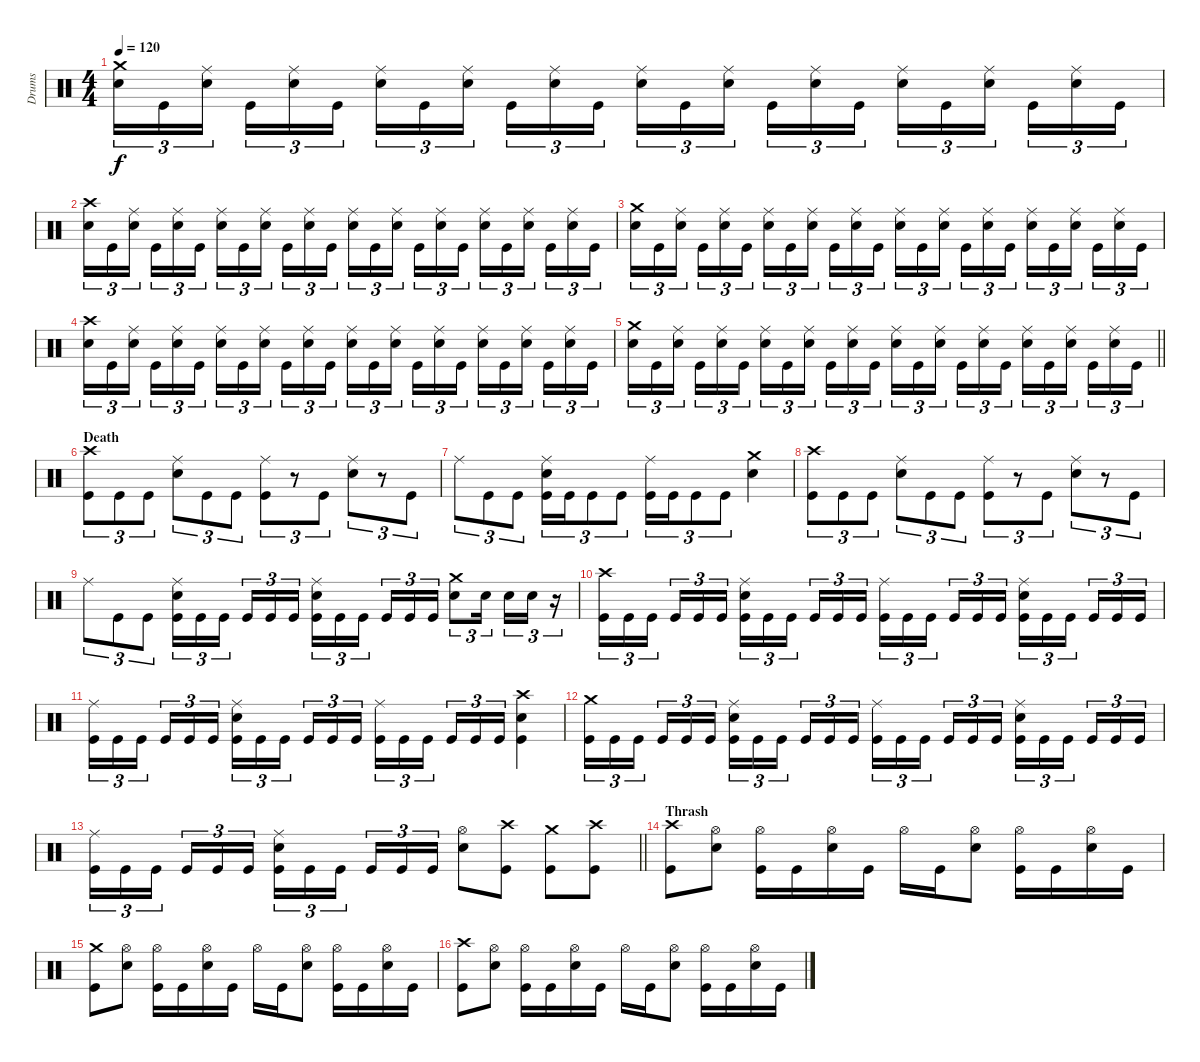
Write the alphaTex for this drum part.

\track ("Drums" "Drums") {instrument percussion}
\staff {score}
\articulation defaults
\ts (4 4)
\tempo 120
\clef neutral
\ks c
("Crash medium (hit)" "Electric Snare (hit)").16{tu (3 2) dy f} "Kick (hit)".16{tu (3 2)} ("Ride (middle)" "Electric Snare (hit)").16{tu (3 2)} "Kick (hit)".16{tu (3 2)} ("Ride (middle)" "Electric Snare (hit)").16{tu (3 2)} "Kick (hit)".16{tu (3 2)} ("Ride (middle)" "Electric Snare (hit)").16{tu (3 2)} "Kick (hit)".16{tu (3 2)} ("Ride (middle)" "Electric Snare (hit)").16{tu (3 2)} "Kick (hit)".16{tu (3 2)} ("Ride (middle)" "Electric Snare (hit)").16{tu (3 2)} "Kick (hit)".16{tu (3 2)} ("Ride (middle)" "Electric Snare (hit)").16{tu (3 2)} "Kick (hit)".16{tu (3 2)} ("Ride (middle)" "Electric Snare (hit)").16{tu (3 2)} "Kick (hit)".16{tu (3 2)} ("Ride (middle)" "Electric Snare (hit)").16{tu (3 2)} "Kick (hit)".16{tu (3 2)} ("Ride (middle)" "Electric Snare (hit)").16{tu (3 2)} "Kick (hit)".16{tu (3 2)} ("Ride (middle)" "Electric Snare (hit)").16{tu (3 2)} "Kick (hit)".16{tu (3 2)} ("Ride (middle)" "Electric Snare (hit)").16{tu (3 2)} "Kick (hit)".16{tu (3 2)} |
("Crash high (hit)" "Electric Snare (hit)").16{tu (3 2)} "Kick (hit)".16{tu (3 2)} ("Ride (middle)" "Electric Snare (hit)").16{tu (3 2)} "Kick (hit)".16{tu (3 2)} ("Ride (middle)" "Electric Snare (hit)").16{tu (3 2)} "Kick (hit)".16{tu (3 2)} ("Ride (middle)" "Electric Snare (hit)").16{tu (3 2)} "Kick (hit)".16{tu (3 2)} ("Ride (middle)" "Electric Snare (hit)").16{tu (3 2)} "Kick (hit)".16{tu (3 2)} ("Ride (middle)" "Electric Snare (hit)").16{tu (3 2)} "Kick (hit)".16{tu (3 2)} ("Ride (middle)" "Electric Snare (hit)").16{tu (3 2)} "Kick (hit)".16{tu (3 2)} ("Ride (middle)" "Electric Snare (hit)").16{tu (3 2)} "Kick (hit)".16{tu (3 2)} ("Ride (middle)" "Electric Snare (hit)").16{tu (3 2)} "Kick (hit)".16{tu (3 2)} ("Ride (middle)" "Electric Snare (hit)").16{tu (3 2)} "Kick (hit)".16{tu (3 2)} ("Ride (middle)" "Electric Snare (hit)").16{tu (3 2)} "Kick (hit)".16{tu (3 2)} ("Ride (middle)" "Electric Snare (hit)").16{tu (3 2)} "Kick (hit)".16{tu (3 2)} |
("Crash medium (hit)" "Electric Snare (hit)").16{tu (3 2)} "Kick (hit)".16{tu (3 2)} ("Ride (middle)" "Electric Snare (hit)").16{tu (3 2)} "Kick (hit)".16{tu (3 2)} ("Ride (middle)" "Electric Snare (hit)").16{tu (3 2)} "Kick (hit)".16{tu (3 2)} ("Ride (middle)" "Electric Snare (hit)").16{tu (3 2)} "Kick (hit)".16{tu (3 2)} ("Ride (middle)" "Electric Snare (hit)").16{tu (3 2)} "Kick (hit)".16{tu (3 2)} ("Ride (middle)" "Electric Snare (hit)").16{tu (3 2)} "Kick (hit)".16{tu (3 2)} ("Ride (middle)" "Electric Snare (hit)").16{tu (3 2)} "Kick (hit)".16{tu (3 2)} ("Ride (middle)" "Electric Snare (hit)").16{tu (3 2)} "Kick (hit)".16{tu (3 2)} ("Ride (middle)" "Electric Snare (hit)").16{tu (3 2)} "Kick (hit)".16{tu (3 2)} ("Ride (middle)" "Electric Snare (hit)").16{tu (3 2)} "Kick (hit)".16{tu (3 2)} ("Ride (middle)" "Electric Snare (hit)").16{tu (3 2)} "Kick (hit)".16{tu (3 2)} ("Ride (middle)" "Electric Snare (hit)").16{tu (3 2)} "Kick (hit)".16{tu (3 2)} |
("Crash high (hit)" "Electric Snare (hit)").16{tu (3 2)} "Kick (hit)".16{tu (3 2)} ("Ride (middle)" "Electric Snare (hit)").16{tu (3 2)} "Kick (hit)".16{tu (3 2)} ("Ride (middle)" "Electric Snare (hit)").16{tu (3 2)} "Kick (hit)".16{tu (3 2)} ("Ride (middle)" "Electric Snare (hit)").16{tu (3 2)} "Kick (hit)".16{tu (3 2)} ("Ride (middle)" "Electric Snare (hit)").16{tu (3 2)} "Kick (hit)".16{tu (3 2)} ("Ride (middle)" "Electric Snare (hit)").16{tu (3 2)} "Kick (hit)".16{tu (3 2)} ("Ride (middle)" "Electric Snare (hit)").16{tu (3 2)} "Kick (hit)".16{tu (3 2)} ("Ride (middle)" "Electric Snare (hit)").16{tu (3 2)} "Kick (hit)".16{tu (3 2)} ("Ride (middle)" "Electric Snare (hit)").16{tu (3 2)} "Kick (hit)".16{tu (3 2)} ("Ride (middle)" "Electric Snare (hit)").16{tu (3 2)} "Kick (hit)".16{tu (3 2)} ("Ride (middle)" "Electric Snare (hit)").16{tu (3 2)} "Kick (hit)".16{tu (3 2)} ("Ride (middle)" "Electric Snare (hit)").16{tu (3 2)} "Kick (hit)".16{tu (3 2)} |
\barLineRight lightlight
("Crash medium (hit)" "Electric Snare (hit)").16{tu (3 2)} "Kick (hit)".16{tu (3 2)} ("Ride (middle)" "Electric Snare (hit)").16{tu (3 2)} "Kick (hit)".16{tu (3 2)} ("Ride (middle)" "Electric Snare (hit)").16{tu (3 2)} "Kick (hit)".16{tu (3 2)} ("Ride (middle)" "Electric Snare (hit)").16{tu (3 2)} "Kick (hit)".16{tu (3 2)} ("Ride (middle)" "Electric Snare (hit)").16{tu (3 2)} "Kick (hit)".16{tu (3 2)} ("Ride (middle)" "Electric Snare (hit)").16{tu (3 2)} "Kick (hit)".16{tu (3 2)} ("Ride (middle)" "Electric Snare (hit)").16{tu (3 2)} "Kick (hit)".16{tu (3 2)} ("Ride (middle)" "Electric Snare (hit)").16{tu (3 2)} "Kick (hit)".16{tu (3 2)} ("Ride (middle)" "Electric Snare (hit)").16{tu (3 2)} "Kick (hit)".16{tu (3 2)} ("Ride (middle)" "Electric Snare (hit)").16{tu (3 2)} "Kick (hit)".16{tu (3 2)} ("Ride (middle)" "Electric Snare (hit)").16{tu (3 2)} "Kick (hit)".16{tu (3 2)} ("Ride (middle)" "Electric Snare (hit)").16{tu (3 2)} "Kick (hit)".16{tu (3 2)} |
\section ("" "Death")
("Crash high (hit)" "Kick (hit)").8{tu (3 2)} "Kick (hit)".8{tu (3 2)} "Kick (hit)".8{tu (3 2)} ("Ride (middle)" "Electric Snare (hit)").8{tu (3 2)} "Kick (hit)".8{tu (3 2)} "Kick (hit)".8{tu (3 2)} ("Ride (middle)" "Kick (hit)").8{tu (3 2)} r.8{tu (3 2)} "Kick (hit)".8{tu (3 2)} ("Ride (middle)" "Electric Snare (hit)").8{tu (3 2)} r.8{tu (3 2)} "Kick (hit)".8{tu (3 2)} |
"Ride (middle)".8{tu (3 2)} "Kick (hit)".8{tu (3 2)} "Kick (hit)".8{tu (3 2)} ("Ride (middle)" "Electric Snare (hit)" "Kick (hit)").16{tu (3 2)} "Kick (hit)".16{tu (3 2)} "Kick (hit)".8{tu (3 2)} "Kick (hit)".8{tu (3 2)} ("Ride (middle)" "Kick (hit)").16{tu (3 2)} "Kick (hit)".16{tu (3 2)} "Kick (hit)".8{tu (3 2)} "Kick (hit)".8{tu (3 2)} ("Crash medium (hit)" "Electric Snare (hit)").4 |
("Crash high (hit)" "Kick (hit)").8{tu (3 2)} "Kick (hit)".8{tu (3 2)} "Kick (hit)".8{tu (3 2)} ("Ride (middle)" "Electric Snare (hit)").8{tu (3 2)} "Kick (hit)".8{tu (3 2)} "Kick (hit)".8{tu (3 2)} ("Ride (middle)" "Kick (hit)").8{tu (3 2)} r.8{tu (3 2)} "Kick (hit)".8{tu (3 2)} ("Ride (middle)" "Electric Snare (hit)").8{tu (3 2)} r.8{tu (3 2)} "Kick (hit)".8{tu (3 2)} |
"Ride (middle)".8{tu (3 2)} "Kick (hit)".8{tu (3 2)} "Kick (hit)".8{tu (3 2)} ("Ride (middle)" "Electric Snare (hit)" "Kick (hit)").16{tu (3 2)} "Kick (hit)".16{tu (3 2)} "Kick (hit)".16{tu (3 2)} "Kick (hit)".16{tu (3 2)} "Kick (hit)".16{tu (3 2)} "Kick (hit)".16{tu (3 2)} ("Ride (middle)" "Electric Snare (hit)" "Kick (hit)").16{tu (3 2)} "Kick (hit)".16{tu (3 2)} "Kick (hit)".16{tu (3 2)} "Kick (hit)".16{tu (3 2)} "Kick (hit)".16{tu (3 2)} "Kick (hit)".16{tu (3 2)} ("Crash medium (hit)" "Electric Snare (hit)").8{tu (3 2)} "Electric Snare (hit)".16{tu (3 2)} "Electric Snare (hit)".16{tu (3 2)} "Electric Snare (hit)".16{tu (3 2)} r.16{tu (3 2)} |
("Crash high (hit)" "Kick (hit)").16{tu (3 2)} "Kick (hit)".16{tu (3 2)} "Kick (hit)".16{tu (3 2)} "Kick (hit)".16{tu (3 2)} "Kick (hit)".16{tu (3 2)} "Kick (hit)".16{tu (3 2)} ("Ride (middle)" "Electric Snare (hit)" "Kick (hit)").16{tu (3 2)} "Kick (hit)".16{tu (3 2)} "Kick (hit)".16{tu (3 2)} "Kick (hit)".16{tu (3 2)} "Kick (hit)".16{tu (3 2)} "Kick (hit)".16{tu (3 2)} ("Ride (middle)" "Kick (hit)").16{tu (3 2)} "Kick (hit)".16{tu (3 2)} "Kick (hit)".16{tu (3 2)} "Kick (hit)".16{tu (3 2)} "Kick (hit)".16{tu (3 2)} "Kick (hit)".16{tu (3 2)} ("Ride (middle)" "Electric Snare (hit)" "Kick (hit)").16{tu (3 2)} "Kick (hit)".16{tu (3 2)} "Kick (hit)".16{tu (3 2)} "Kick (hit)".16{tu (3 2)} "Kick (hit)".16{tu (3 2)} "Kick (hit)".16{tu (3 2)} |
("Ride (middle)" "Kick (hit)").16{tu (3 2)} "Kick (hit)".16{tu (3 2)} "Kick (hit)".16{tu (3 2)} "Kick (hit)".16{tu (3 2)} "Kick (hit)".16{tu (3 2)} "Kick (hit)".16{tu (3 2)} ("Ride (middle)" "Electric Snare (hit)" "Kick (hit)").16{tu (3 2)} "Kick (hit)".16{tu (3 2)} "Kick (hit)".16{tu (3 2)} "Kick (hit)".16{tu (3 2)} "Kick (hit)".16{tu (3 2)} "Kick (hit)".16{tu (3 2)} ("Ride (middle)" "Kick (hit)").16{tu (3 2)} "Kick (hit)".16{tu (3 2)} "Kick (hit)".16{tu (3 2)} "Kick (hit)".16{tu (3 2)} "Kick (hit)".16{tu (3 2)} "Kick (hit)".16{tu (3 2)} ("Crash high (hit)" "Electric Snare (hit)" "Kick (hit)").4 |
("Crash medium (hit)" "Kick (hit)").16{tu (3 2)} "Kick (hit)".16{tu (3 2)} "Kick (hit)".16{tu (3 2)} "Kick (hit)".16{tu (3 2)} "Kick (hit)".16{tu (3 2)} "Kick (hit)".16{tu (3 2)} ("Ride (middle)" "Electric Snare (hit)" "Kick (hit)").16{tu (3 2)} "Kick (hit)".16{tu (3 2)} "Kick (hit)".16{tu (3 2)} "Kick (hit)".16{tu (3 2)} "Kick (hit)".16{tu (3 2)} "Kick (hit)".16{tu (3 2)} ("Ride (middle)" "Kick (hit)").16{tu (3 2)} "Kick (hit)".16{tu (3 2)} "Kick (hit)".16{tu (3 2)} "Kick (hit)".16{tu (3 2)} "Kick (hit)".16{tu (3 2)} "Kick (hit)".16{tu (3 2)} ("Ride (middle)" "Electric Snare (hit)" "Kick (hit)").16{tu (3 2)} "Kick (hit)".16{tu (3 2)} "Kick (hit)".16{tu (3 2)} "Kick (hit)".16{tu (3 2)} "Kick (hit)".16{tu (3 2)} "Kick (hit)".16{tu (3 2)} |
\barLineRight lightlight
("Ride (middle)" "Kick (hit)").16{tu (3 2)} "Kick (hit)".16{tu (3 2)} "Kick (hit)".16{tu (3 2)} "Kick (hit)".16{tu (3 2)} "Kick (hit)".16{tu (3 2)} "Kick (hit)".16{tu (3 2)} ("Ride (middle)" "Electric Snare (hit)" "Kick (hit)").16{tu (3 2)} "Kick (hit)".16{tu (3 2)} "Kick (hit)".16{tu (3 2)} "Kick (hit)".16{tu (3 2)} "Kick (hit)".16{tu (3 2)} "Kick (hit)".16{tu (3 2)} ("Hi-Hat (open)" "Electric Snare (hit)").8 ("Crash high (hit)" "Kick (hit)").8 ("Crash medium (hit)" "Kick (hit)").8 ("Crash high (hit)" "Kick (hit)").8 |
\section ("" "Thrash")
("Crash high (hit)" "Kick (hit)").8 ("Hi-Hat (open)" "Electric Snare (hit)").8 ("Hi-Hat (open)" "Kick (hit)").16 "Kick (hit)".16 ("Hi-Hat (open)" "Electric Snare (hit)").16 "Kick (hit)".16 "Hi-Hat (open)".16 "Kick (hit)".16 ("Hi-Hat (open)" "Electric Snare (hit)").8 ("Hi-Hat (open)" "Kick (hit)").16 "Kick (hit)".16 ("Hi-Hat (open)" "Electric Snare (hit)").16 "Kick (hit)".16 |
("Crash medium (hit)" "Kick (hit)").8 ("Hi-Hat (open)" "Electric Snare (hit)").8 ("Hi-Hat (open)" "Kick (hit)").16 "Kick (hit)".16 ("Hi-Hat (open)" "Electric Snare (hit)").16 "Kick (hit)".16 "Hi-Hat (open)".16 "Kick (hit)".16 ("Hi-Hat (open)" "Electric Snare (hit)").8 ("Hi-Hat (open)" "Kick (hit)").16 "Kick (hit)".16 ("Hi-Hat (open)" "Electric Snare (hit)").16 "Kick (hit)".16 |
("Crash high (hit)" "Kick (hit)").8 ("Hi-Hat (open)" "Electric Snare (hit)").8 ("Hi-Hat (open)" "Kick (hit)").16 "Kick (hit)".16 ("Hi-Hat (open)" "Electric Snare (hit)").16 "Kick (hit)".16 "Hi-Hat (open)".16 "Kick (hit)".16 ("Hi-Hat (open)" "Electric Snare (hit)").8 ("Hi-Hat (open)" "Kick (hit)").16 "Kick (hit)".16 ("Hi-Hat (open)" "Electric Snare (hit)").16 "Kick (hit)".16
